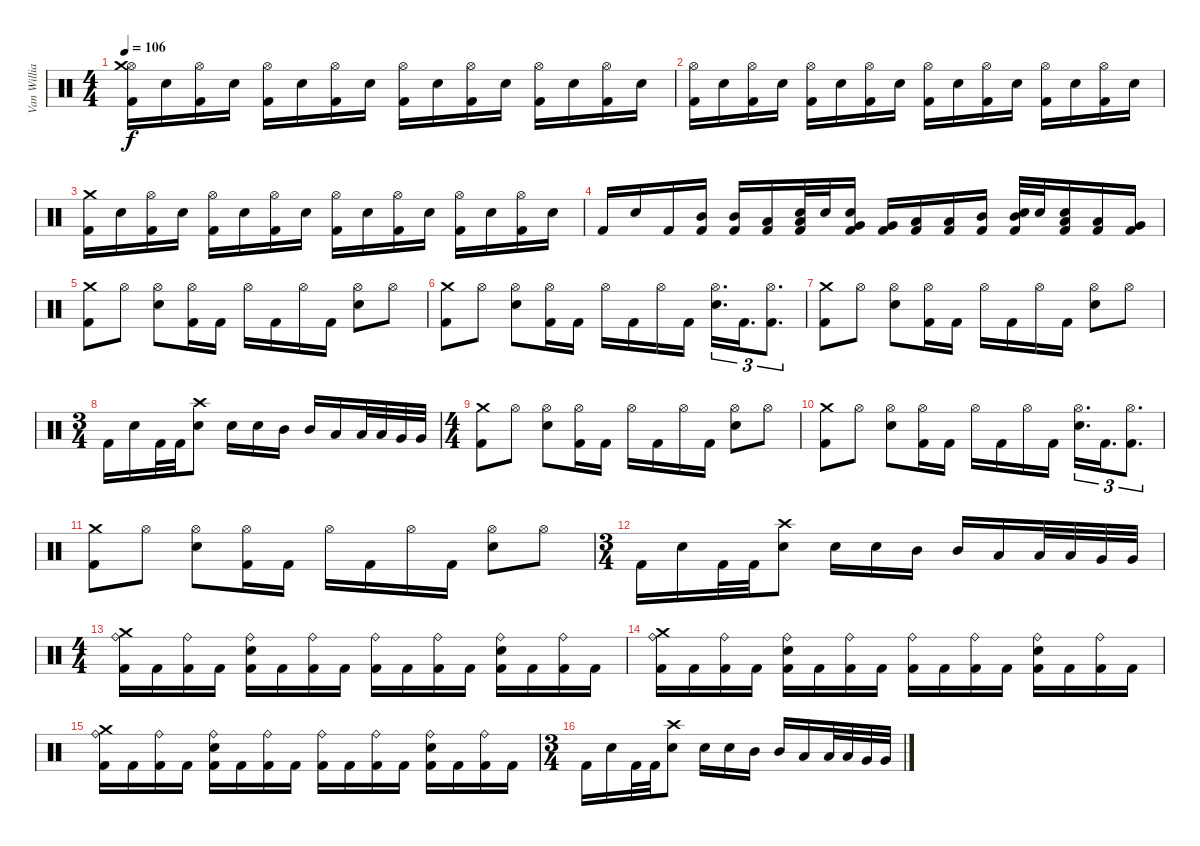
\track ("Van Williams" "Van Willia") {instrument percussion}
\staff {score}
\articulation defaults
\ts (4 4)
\tempo 106
\clef neutral
\ks c
("Kick (hit) 2" "Hi-Hat (open)" "Crash medium (hit)").16{dy f} "Electric Snare (hit)".16 ("Kick (hit) 2" "Hi-Hat (open)").16 "Electric Snare (hit)".16 ("Kick (hit) 2" "Hi-Hat (open)").16 "Electric Snare (hit)".16 ("Kick (hit) 2" "Hi-Hat (open)").16 "Electric Snare (hit)".16 ("Kick (hit) 2" "Hi-Hat (open)").16 "Electric Snare (hit)".16 ("Kick (hit) 2" "Hi-Hat (open)").16 "Electric Snare (hit)".16 ("Kick (hit) 2" "Hi-Hat (open)").16 "Electric Snare (hit)".16 ("Kick (hit) 2" "Hi-Hat (open)").16 "Electric Snare (hit)".16 |
("Kick (hit) 2" "Hi-Hat (open)").16 "Electric Snare (hit)".16 ("Kick (hit) 2" "Hi-Hat (open)").16 "Electric Snare (hit)".16 ("Kick (hit) 2" "Hi-Hat (open)").16 "Electric Snare (hit)".16 ("Kick (hit) 2" "Hi-Hat (open)").16 "Electric Snare (hit)".16 ("Kick (hit) 2" "Hi-Hat (open)").16 "Electric Snare (hit)".16 ("Kick (hit) 2" "Hi-Hat (open)").16 "Electric Snare (hit)".16 ("Kick (hit) 2" "Hi-Hat (open)").16 "Electric Snare (hit)".16 ("Kick (hit) 2" "Hi-Hat (open)").16 "Electric Snare (hit)".16 |
("Crash medium (hit)" "Kick (hit) 2").16 "Electric Snare (hit)".16 ("Kick (hit) 2" "Hi-Hat (open)").16 "Electric Snare (hit)".16 ("Kick (hit) 2" "Hi-Hat (open)").16 "Electric Snare (hit)".16 ("Kick (hit) 2" "Hi-Hat (open)").16 "Electric Snare (hit)".16 ("Kick (hit) 2" "Hi-Hat (open)").16 "Electric Snare (hit)".16 ("Kick (hit) 2" "Hi-Hat (open)").16 "Electric Snare (hit)".16 ("Kick (hit) 2" "Hi-Hat (open)").16 "Electric Snare (hit)".16 ("Kick (hit) 2" "Hi-Hat (open)").16 "Electric Snare (hit)".16 |
"Kick (hit) 2".16 "Electric Snare (hit)".16 "Kick (hit) 2".16 ("Kick (hit) 2" "Mid Tom (hit)").16 ("Kick (hit) 2" "Mid Tom (hit)").16 ("Kick (hit) 2" "Low Tom (hit)").16 ("Kick (hit) 2" "Low Tom (hit)" "Electric Snare (hit)").32 "Electric Snare (hit)".32 ("Kick (hit) 2" "Very Low Tom (hit)" "Electric Snare (hit)").16 ("Kick (hit) 2" "Very Low Tom (hit)").16 ("Kick (hit) 2" "Low Tom (hit)").16 ("Kick (hit) 2" "Low Tom (hit)").16 ("Kick (hit) 2" "Mid Tom (hit)").16 ("Kick (hit) 2" "Mid Tom (hit)" "Electric Snare (hit)").32 "Electric Snare (hit)".32 ("Kick (hit) 2" "Low Tom (hit)" "Electric Snare (hit)").16 ("Kick (hit) 2" "Low Tom (hit)").16 ("Kick (hit) 2" "Very Low Tom (hit)").16 |
("Crash medium (hit)" "Kick (hit) 2").8 "Hi-Hat (open)".8 ("Electric Snare (hit)" "Hi-Hat (open)").8 ("Kick (hit) 2" "Hi-Hat (open)").16 "Kick (hit) 2".16 "Hi-Hat (open)".16 "Kick (hit) 2".16 "Hi-Hat (open)".16 "Kick (hit) 2".16 ("Electric Snare (hit)" "Hi-Hat (open)").8 "Hi-Hat (open)".8 |
("Crash medium (hit)" "Kick (hit) 2").8 "Hi-Hat (open)".8 ("Electric Snare (hit)" "Hi-Hat (open)").8 ("Kick (hit) 2" "Hi-Hat (open)").16 "Kick (hit) 2".16 "Hi-Hat (open)".16 "Kick (hit) 2".16 "Hi-Hat (open)".16 "Kick (hit) 2".16 ("Electric Snare (hit)" "Hi-Hat (open)").16{d tu (3 2)} "Kick (hit) 2".16{d tu (3 2)} ("Kick (hit) 2" "Hi-Hat (open)").8{d tu (3 2)} |
("Crash medium (hit)" "Kick (hit) 2").8 "Hi-Hat (open)".8 ("Electric Snare (hit)" "Hi-Hat (open)").8 ("Kick (hit) 2" "Hi-Hat (open)").16 "Kick (hit) 2".16 "Hi-Hat (open)".16 "Kick (hit) 2".16 "Hi-Hat (open)".16 "Kick (hit) 2".16 ("Electric Snare (hit)" "Hi-Hat (open)").8 "Hi-Hat (open)".8 |
\ts (3 4)
"Kick (hit) 2".16 "Electric Snare (hit)".16 "Kick (hit) 2".32 "Kick (hit) 2".32 ("Crash high (hit)" "Electric Snare (hit)").8 "Electric Snare (hit)".16 "Electric Snare (hit)".16 "Mid Tom (hit)".16 "Mid Tom (hit)".16 "Low Tom (hit)".16 "Low Tom (hit)".32 "Low Tom (hit)".32 "Very Low Tom (hit)".32 "Very Low Tom (hit)".32 |
\ts (4 4)
("Crash medium (hit)" "Kick (hit) 2").8 "Hi-Hat (open)".8 ("Electric Snare (hit)" "Hi-Hat (open)").8 ("Kick (hit) 2" "Hi-Hat (open)").16 "Kick (hit) 2".16 "Hi-Hat (open)".16 "Kick (hit) 2".16 "Hi-Hat (open)".16 "Kick (hit) 2".16 ("Electric Snare (hit)" "Hi-Hat (open)").8 "Hi-Hat (open)".8 |
("Crash medium (hit)" "Kick (hit) 2").8 "Hi-Hat (open)".8 ("Electric Snare (hit)" "Hi-Hat (open)").8 ("Kick (hit) 2" "Hi-Hat (open)").16 "Kick (hit) 2".16 "Hi-Hat (open)".16 "Kick (hit) 2".16 "Hi-Hat (open)".16 "Kick (hit) 2".16 ("Electric Snare (hit)" "Hi-Hat (open)").16{d tu (3 2)} "Kick (hit) 2".16{d tu (3 2)} ("Kick (hit) 2" "Hi-Hat (open)").8{d tu (3 2)} |
("Crash medium (hit)" "Kick (hit) 2").8 "Hi-Hat (open)".8 ("Electric Snare (hit)" "Hi-Hat (open)").8 ("Kick (hit) 2" "Hi-Hat (open)").16 "Kick (hit) 2".16 "Hi-Hat (open)".16 "Kick (hit) 2".16 "Hi-Hat (open)".16 "Kick (hit) 2".16 ("Electric Snare (hit)" "Hi-Hat (open)").8 "Hi-Hat (open)".8 |
\ts (3 4)
"Kick (hit) 2".16 "Electric Snare (hit)".16 "Kick (hit) 2".32 "Kick (hit) 2".32 ("Crash high (hit)" "Electric Snare (hit)").8 "Electric Snare (hit)".16 "Electric Snare (hit)".16 "Mid Tom (hit)".16 "Mid Tom (hit)".16 "Low Tom (hit)".16 "Low Tom (hit)".32 "Low Tom (hit)".32 "Very Low Tom (hit)".32 "Very Low Tom (hit)".32 |
\ts (4 4)
("Crash medium (hit)" "Kick (hit) 2" "Ride (bell)").16 "Kick (hit) 2".16 ("Kick (hit) 2" "Ride (bell)").16 "Kick (hit) 2".16 ("Electric Snare (hit)" "Kick (hit) 2" "Ride (bell)").16 "Kick (hit) 2".16 ("Kick (hit) 2" "Ride (bell)").16 "Kick (hit) 2".16 ("Kick (hit) 2" "Ride (bell)").16 "Kick (hit) 2".16 ("Kick (hit) 2" "Ride (bell)").16 "Kick (hit) 2".16 ("Electric Snare (hit)" "Kick (hit) 2" "Ride (bell)").16 "Kick (hit) 2".16 ("Kick (hit) 2" "Ride (bell)").16 "Kick (hit) 2".16 |
("Crash medium (hit)" "Kick (hit) 2" "Ride (bell)").16 "Kick (hit) 2".16 ("Kick (hit) 2" "Ride (bell)").16 "Kick (hit) 2".16 ("Electric Snare (hit)" "Kick (hit) 2" "Ride (bell)").16 "Kick (hit) 2".16 ("Kick (hit) 2" "Ride (bell)").16 "Kick (hit) 2".16 ("Kick (hit) 2" "Ride (bell)").16 "Kick (hit) 2".16 ("Kick (hit) 2" "Ride (bell)").16 "Kick (hit) 2".16 ("Electric Snare (hit)" "Kick (hit) 2" "Ride (bell)").16 "Kick (hit) 2".16 ("Kick (hit) 2" "Ride (bell)").16 "Kick (hit) 2".16 |
("Crash medium (hit)" "Kick (hit) 2" "Ride (bell)").16 "Kick (hit) 2".16 ("Kick (hit) 2" "Ride (bell)").16 "Kick (hit) 2".16 ("Electric Snare (hit)" "Kick (hit) 2" "Ride (bell)").16 "Kick (hit) 2".16 ("Kick (hit) 2" "Ride (bell)").16 "Kick (hit) 2".16 ("Kick (hit) 2" "Ride (bell)").16 "Kick (hit) 2".16 ("Kick (hit) 2" "Ride (bell)").16 "Kick (hit) 2".16 ("Electric Snare (hit)" "Kick (hit) 2" "Ride (bell)").16 "Kick (hit) 2".16 ("Kick (hit) 2" "Ride (bell)").16 "Kick (hit) 2".16 |
\ts (3 4)
"Kick (hit) 2".16 "Electric Snare (hit)".16 "Kick (hit) 2".32 "Kick (hit) 2".32 ("Crash high (hit)" "Electric Snare (hit)").8 "Electric Snare (hit)".16 "Electric Snare (hit)".16 "Mid Tom (hit)".16 "Mid Tom (hit)".16 "Low Tom (hit)".16 "Low Tom (hit)".32 "Low Tom (hit)".32 "Very Low Tom (hit)".32 "Very Low Tom (hit)".32
